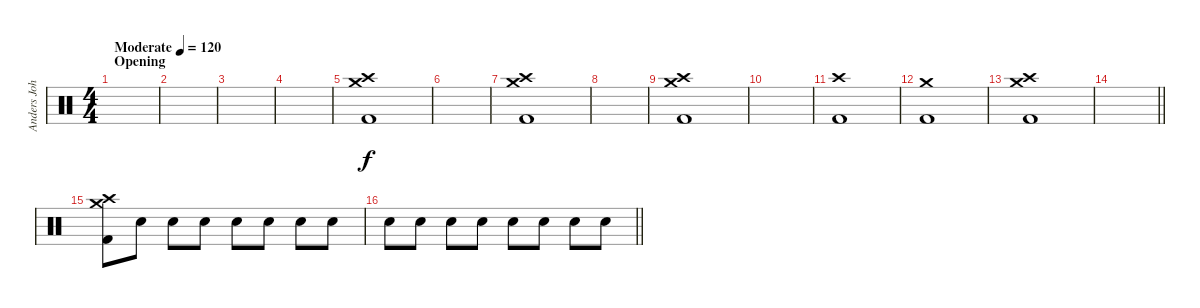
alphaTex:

\track ("Anders Johansson" "Anders Joh") {instrument percussion}
\staff {score}
\articulation defaults
\ts (4 4)
\section ("" "Opening")
\tempo (120 "Moderate")
\clef neutral
\ks c
|
|
|
|
("Crash high (hit)" "Crash medium (hit)" "Kick (hit) 2").1 |
|
("Crash high (hit)" "Crash medium (hit)" "Kick (hit) 2").1 |
|
("Crash high (hit)" "Crash medium (hit)" "Kick (hit) 2").1 |
|
("Crash high (hit)" "Kick (hit) 2").1 |
("Crash medium (hit)" "Kick (hit) 2").1 |
("Crash medium (hit)" "Crash high (hit)" "Kick (hit) 2").1 |
\barLineRight lightlight
|
("Crash high (hit)" "Crash medium (hit)" "Kick (hit) 2").8 "Snare (hit) 2".8 "Snare (hit) 2".8 "Snare (hit) 2".8 "Snare (hit) 2".8 "Snare (hit) 2".8 "Snare (hit) 2".8 "Snare (hit) 2".8 |
\barLineRight lightlight "Snare (hit) 2".8 "Snare (hit) 2".8 "Snare (hit) 2".8 "Snare (hit) 2".8 "Snare (hit) 2".8 "Snare (hit) 2".8 "Snare (hit) 2".8 "Snare (hit) 2".8
